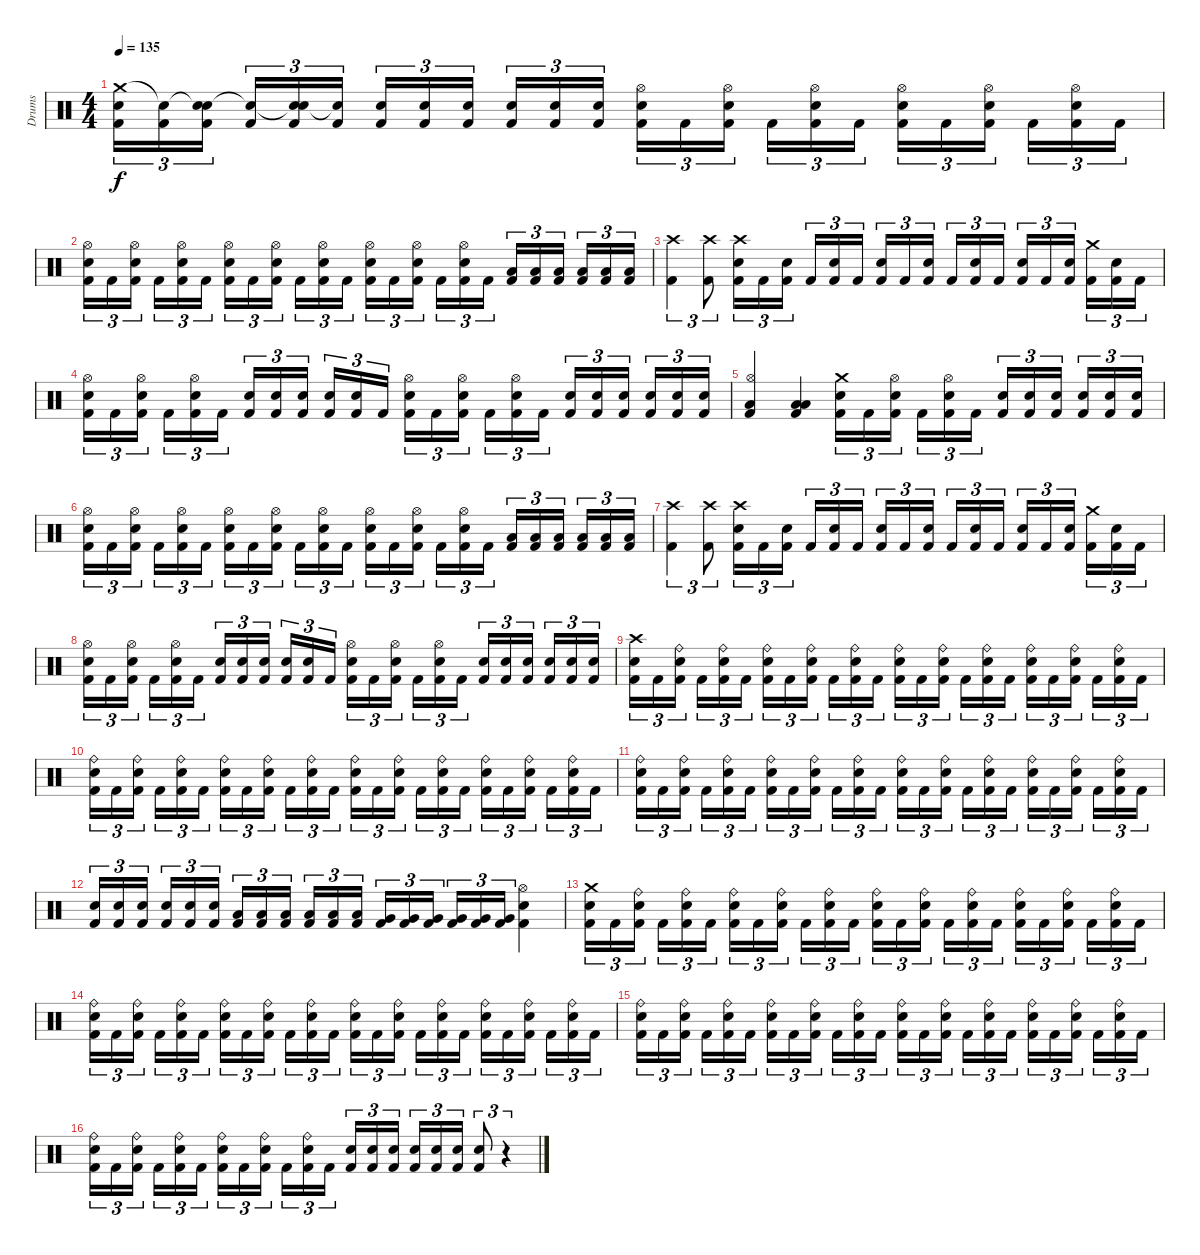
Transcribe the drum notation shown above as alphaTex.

\track ("Drums" "Drums") {instrument percussion}
\staff {score}
\articulation defaults
\ts (4 4)
\tempo 135
\clef neutral
\ks c
("Crash medium (hit)" "Electric Snare (hit)" "Kick (hit) 2").16{tu (3 2) dy f} ("Snare (hit)"{t} "Kick (hit) 2").16{tu (3 2)} ("Snare (hit)"{t} "Electric Snare (hit)" "Kick (hit) 2").16{tu (3 2)} ("Snare (hit)"{t} "Kick (hit) 2").16{tu (3 2)} ("Snare (hit)"{t} "Electric Snare (hit)" "Kick (hit) 2").16{tu (3 2)} ("Snare (hit)"{t} "Kick (hit) 2").16{tu (3 2)} ("Electric Snare (hit)" "Kick (hit) 2").16{tu (3 2)} ("Electric Snare (hit)" "Kick (hit) 2").16{tu (3 2)} ("Electric Snare (hit)" "Kick (hit) 2").16{tu (3 2)} ("Electric Snare (hit)" "Kick (hit) 2").16{tu (3 2)} ("Electric Snare (hit)" "Kick (hit) 2").16{tu (3 2)} ("Electric Snare (hit)" "Kick (hit) 2").16{tu (3 2)} ("Hi-Hat (open)" "Electric Snare (hit)" "Kick (hit) 2").16{tu (3 2)} "Kick (hit) 2".16{tu (3 2)} ("Hi-Hat (open)" "Electric Snare (hit)" "Kick (hit) 2").16{tu (3 2)} "Kick (hit) 2".16{tu (3 2)} ("Hi-Hat (open)" "Electric Snare (hit)" "Kick (hit) 2").16{tu (3 2)} "Kick (hit) 2".16{tu (3 2)} ("Hi-Hat (open)" "Electric Snare (hit)" "Kick (hit) 2").16{tu (3 2)} "Kick (hit) 2".16{tu (3 2)} ("Hi-Hat (open)" "Electric Snare (hit)" "Kick (hit) 2").16{tu (3 2)} "Kick (hit) 2".16{tu (3 2)} ("Hi-Hat (open)" "Electric Snare (hit)" "Kick (hit) 2").16{tu (3 2)} "Kick (hit) 2".16{tu (3 2)} |
("Hi-Hat (open)" "Electric Snare (hit)" "Kick (hit) 2").16{tu (3 2)} "Kick (hit) 2".16{tu (3 2)} ("Hi-Hat (open)" "Electric Snare (hit)" "Kick (hit) 2").16{tu (3 2)} "Kick (hit) 2".16{tu (3 2)} ("Hi-Hat (open)" "Electric Snare (hit)" "Kick (hit) 2").16{tu (3 2)} "Kick (hit) 2".16{tu (3 2)} ("Hi-Hat (open)" "Electric Snare (hit)" "Kick (hit) 2").16{tu (3 2)} "Kick (hit) 2".16{tu (3 2)} ("Hi-Hat (open)" "Electric Snare (hit)" "Kick (hit) 2").16{tu (3 2)} "Kick (hit) 2".16{tu (3 2)} ("Hi-Hat (open)" "Electric Snare (hit)" "Kick (hit) 2").16{tu (3 2)} "Kick (hit) 2".16{tu (3 2)} ("Hi-Hat (open)" "Electric Snare (hit)" "Kick (hit) 2").16{tu (3 2)} "Kick (hit) 2".16{tu (3 2)} ("Hi-Hat (open)" "Electric Snare (hit)" "Kick (hit) 2").16{tu (3 2)} "Kick (hit) 2".16{tu (3 2)} ("Hi-Hat (open)" "Electric Snare (hit)" "Kick (hit) 2").16{tu (3 2)} "Kick (hit) 2".16{tu (3 2)} ("Low Floor Tom (hit)" "Kick (hit) 2").16{tu (3 2)} ("Low Floor Tom (hit)" "Kick (hit) 2").16{tu (3 2)} ("Low Floor Tom (hit)" "Kick (hit) 2").16{tu (3 2)} ("Low Floor Tom (hit)" "Kick (hit) 2").16{tu (3 2)} ("Low Floor Tom (hit)" "Kick (hit) 2").16{tu (3 2)} ("Low Floor Tom (hit)" "Kick (hit) 2").16{tu (3 2)} |
("Crash high (hit)" "Kick (hit) 2").4{tu (3 2)} ("Crash high (hit)" "Kick (hit) 2").8{tu (3 2)} ("Crash high (hit)" "Electric Snare (hit)" "Kick (hit) 2").16{tu (3 2)} "Kick (hit) 2".16{tu (3 2)} ("Electric Snare (hit)" "Kick (hit) 2").16{tu (3 2)} "Kick (hit) 2".16{tu (3 2)} ("Electric Snare (hit)" "Kick (hit) 2").16{tu (3 2)} "Kick (hit) 2".16{tu (3 2)} ("Electric Snare (hit)" "Kick (hit) 2").16{tu (3 2)} "Kick (hit) 2".16{tu (3 2)} ("Electric Snare (hit)" "Kick (hit) 2").16{tu (3 2)} "Kick (hit) 2".16{tu (3 2)} ("Electric Snare (hit)" "Kick (hit) 2").16{tu (3 2)} "Kick (hit) 2".16{tu (3 2)} ("Electric Snare (hit)" "Kick (hit) 2").16{tu (3 2)} "Kick (hit) 2".16{tu (3 2)} ("Electric Snare (hit)" "Kick (hit) 2").16{tu (3 2)} ("Crash medium (hit)" "Kick (hit) 2").16{tu (3 2)} ("Electric Snare (hit)" "Kick (hit) 2").16{tu (3 2)} "Kick (hit) 2".16{tu (3 2)} |
("Hi-Hat (open)" "Electric Snare (hit)" "Kick (hit) 2").16{tu (3 2)} "Kick (hit) 2".16{tu (3 2)} ("Hi-Hat (open)" "Electric Snare (hit)" "Kick (hit) 2").16{tu (3 2)} "Kick (hit) 2".16{tu (3 2)} ("Hi-Hat (open)" "Electric Snare (hit)" "Kick (hit) 2").16{tu (3 2)} "Kick (hit) 2".16{tu (3 2)} ("Electric Snare (hit)" "Kick (hit) 2").16{tu (3 2)} ("Electric Snare (hit)" "Kick (hit) 2").16{tu (3 2)} ("Electric Snare (hit)" "Kick (hit) 2").16{tu (3 2)} ("Electric Snare (hit)" "Kick (hit) 2").16{tu (3 2)} ("Electric Snare (hit)" "Kick (hit) 2").16{tu (3 2)} "Kick (hit) 2".16{tu (3 2)} ("Hi-Hat (open)" "Electric Snare (hit)" "Kick (hit) 2").16{tu (3 2)} "Kick (hit) 2".16{tu (3 2)} ("Hi-Hat (open)" "Electric Snare (hit)" "Kick (hit) 2").16{tu (3 2)} "Kick (hit) 2".16{tu (3 2)} ("Hi-Hat (open)" "Electric Snare (hit)" "Kick (hit) 2").16{tu (3 2)} "Kick (hit) 2".16{tu (3 2)} ("Electric Snare (hit)" "Kick (hit) 2").16{tu (3 2)} ("Electric Snare (hit)" "Kick (hit) 2").16{tu (3 2)} ("Electric Snare (hit)" "Kick (hit) 2").16{tu (3 2)} ("Electric Snare (hit)" "Kick (hit) 2").16{tu (3 2)} ("Electric Snare (hit)" "Kick (hit) 2").16{tu (3 2)} ("Electric Snare (hit)" "Kick (hit) 2").16{tu (3 2)} |
("Hi-Hat (open)" "Low Floor Tom (hit)" "Kick (hit) 2").4 ("Low Floor Tom (hit)" "Low Floor Tom (hit)" "Kick (hit) 2").4 ("Crash medium (hit)" "Electric Snare (hit)" "Kick (hit) 2").16{tu (3 2)} "Kick (hit) 2".16{tu (3 2)} ("Hi-Hat (open)" "Electric Snare (hit)" "Kick (hit) 2").16{tu (3 2)} "Kick (hit) 2".16{tu (3 2)} ("Hi-Hat (open)" "Electric Snare (hit)" "Kick (hit) 2").16{tu (3 2)} "Kick (hit) 2".16{tu (3 2)} ("Electric Snare (hit)" "Kick (hit) 2").16{tu (3 2)} ("Electric Snare (hit)" "Kick (hit) 2").16{tu (3 2)} ("Electric Snare (hit)" "Kick (hit) 2").16{tu (3 2)} ("Electric Snare (hit)" "Kick (hit) 2").16{tu (3 2)} ("Electric Snare (hit)" "Kick (hit) 2").16{tu (3 2)} ("Electric Snare (hit)" "Kick (hit) 2").16{tu (3 2)} |
("Hi-Hat (open)" "Electric Snare (hit)" "Kick (hit) 2").16{tu (3 2)} "Kick (hit) 2".16{tu (3 2)} ("Hi-Hat (open)" "Electric Snare (hit)" "Kick (hit) 2").16{tu (3 2)} "Kick (hit) 2".16{tu (3 2)} ("Hi-Hat (open)" "Electric Snare (hit)" "Kick (hit) 2").16{tu (3 2)} "Kick (hit) 2".16{tu (3 2)} ("Hi-Hat (open)" "Electric Snare (hit)" "Kick (hit) 2").16{tu (3 2)} "Kick (hit) 2".16{tu (3 2)} ("Hi-Hat (open)" "Electric Snare (hit)" "Kick (hit) 2").16{tu (3 2)} "Kick (hit) 2".16{tu (3 2)} ("Hi-Hat (open)" "Electric Snare (hit)" "Kick (hit) 2").16{tu (3 2)} "Kick (hit) 2".16{tu (3 2)} ("Hi-Hat (open)" "Electric Snare (hit)" "Kick (hit) 2").16{tu (3 2)} "Kick (hit) 2".16{tu (3 2)} ("Hi-Hat (open)" "Electric Snare (hit)" "Kick (hit) 2").16{tu (3 2)} "Kick (hit) 2".16{tu (3 2)} ("Hi-Hat (open)" "Electric Snare (hit)" "Kick (hit) 2").16{tu (3 2)} "Kick (hit) 2".16{tu (3 2)} ("Low Floor Tom (hit)" "Kick (hit) 2").16{tu (3 2)} ("Low Floor Tom (hit)" "Kick (hit) 2").16{tu (3 2)} ("Low Floor Tom (hit)" "Kick (hit) 2").16{tu (3 2)} ("Low Floor Tom (hit)" "Kick (hit) 2").16{tu (3 2)} ("Low Floor Tom (hit)" "Kick (hit) 2").16{tu (3 2)} ("Low Floor Tom (hit)" "Kick (hit) 2").16{tu (3 2)} |
("Crash high (hit)" "Kick (hit) 2").4{tu (3 2)} ("Crash high (hit)" "Kick (hit) 2").8{tu (3 2)} ("Crash high (hit)" "Electric Snare (hit)" "Kick (hit) 2").16{tu (3 2)} "Kick (hit) 2".16{tu (3 2)} ("Electric Snare (hit)" "Kick (hit) 2").16{tu (3 2)} "Kick (hit) 2".16{tu (3 2)} ("Electric Snare (hit)" "Kick (hit) 2").16{tu (3 2)} "Kick (hit) 2".16{tu (3 2)} ("Electric Snare (hit)" "Kick (hit) 2").16{tu (3 2)} "Kick (hit) 2".16{tu (3 2)} ("Electric Snare (hit)" "Kick (hit) 2").16{tu (3 2)} "Kick (hit) 2".16{tu (3 2)} ("Electric Snare (hit)" "Kick (hit) 2").16{tu (3 2)} "Kick (hit) 2".16{tu (3 2)} ("Electric Snare (hit)" "Kick (hit) 2").16{tu (3 2)} "Kick (hit) 2".16{tu (3 2)} ("Electric Snare (hit)" "Kick (hit) 2").16{tu (3 2)} ("Crash medium (hit)" "Kick (hit) 2").16{tu (3 2)} ("Electric Snare (hit)" "Kick (hit) 2").16{tu (3 2)} "Kick (hit) 2".16{tu (3 2)} |
("Hi-Hat (open)" "Electric Snare (hit)" "Kick (hit) 2").16{tu (3 2)} "Kick (hit) 2".16{tu (3 2)} ("Hi-Hat (open)" "Electric Snare (hit)" "Kick (hit) 2").16{tu (3 2)} "Kick (hit) 2".16{tu (3 2)} ("Hi-Hat (open)" "Electric Snare (hit)" "Kick (hit) 2").16{tu (3 2)} "Kick (hit) 2".16{tu (3 2)} ("Electric Snare (hit)" "Kick (hit) 2").16{tu (3 2)} ("Electric Snare (hit)" "Kick (hit) 2").16{tu (3 2)} ("Electric Snare (hit)" "Kick (hit) 2").16{tu (3 2)} ("Electric Snare (hit)" "Kick (hit) 2").16{tu (3 2)} ("Electric Snare (hit)" "Kick (hit) 2").16{tu (3 2)} "Kick (hit) 2".16{tu (3 2)} ("Hi-Hat (open)" "Electric Snare (hit)" "Kick (hit) 2").16{tu (3 2)} "Kick (hit) 2".16{tu (3 2)} ("Hi-Hat (open)" "Electric Snare (hit)" "Kick (hit) 2").16{tu (3 2)} "Kick (hit) 2".16{tu (3 2)} ("Hi-Hat (open)" "Electric Snare (hit)" "Kick (hit) 2").16{tu (3 2)} "Kick (hit) 2".16{tu (3 2)} ("Electric Snare (hit)" "Kick (hit) 2").16{tu (3 2)} ("Electric Snare (hit)" "Kick (hit) 2").16{tu (3 2)} ("Electric Snare (hit)" "Kick (hit) 2").16{tu (3 2)} ("Electric Snare (hit)" "Kick (hit) 2").16{tu (3 2)} ("Electric Snare (hit)" "Kick (hit) 2").16{tu (3 2)} ("Electric Snare (hit)" "Kick (hit) 2").16{tu (3 2)} |
("Crash high (hit)" "Electric Snare (hit)" "Kick (hit) 2").16{tu (3 2)} "Kick (hit) 2".16{tu (3 2)} ("Ride (bell)" "Electric Snare (hit)" "Kick (hit) 2").16{tu (3 2)} "Kick (hit) 2".16{tu (3 2)} ("Ride (bell)" "Electric Snare (hit)" "Kick (hit) 2").16{tu (3 2)} "Kick (hit) 2".16{tu (3 2)} ("Ride (bell)" "Electric Snare (hit)" "Kick (hit) 2").16{tu (3 2)} "Kick (hit) 2".16{tu (3 2)} ("Ride (bell)" "Electric Snare (hit)" "Kick (hit) 2").16{tu (3 2)} "Kick (hit) 2".16{tu (3 2)} ("Ride (bell)" "Electric Snare (hit)" "Kick (hit) 2").16{tu (3 2)} "Kick (hit) 2".16{tu (3 2)} ("Ride (bell)" "Electric Snare (hit)" "Kick (hit) 2").16{tu (3 2)} "Kick (hit) 2".16{tu (3 2)} ("Ride (bell)" "Electric Snare (hit)" "Kick (hit) 2").16{tu (3 2)} "Kick (hit) 2".16{tu (3 2)} ("Ride (bell)" "Electric Snare (hit)" "Kick (hit) 2").16{tu (3 2)} "Kick (hit) 2".16{tu (3 2)} ("Ride (bell)" "Electric Snare (hit)" "Kick (hit) 2").16{tu (3 2)} "Kick (hit) 2".16{tu (3 2)} ("Ride (bell)" "Electric Snare (hit)" "Kick (hit) 2").16{tu (3 2)} "Kick (hit) 2".16{tu (3 2)} ("Ride (bell)" "Electric Snare (hit)" "Kick (hit) 2").16{tu (3 2)} "Kick (hit) 2".16{tu (3 2)} |
("Ride (bell)" "Electric Snare (hit)" "Kick (hit) 2").16{tu (3 2)} "Kick (hit) 2".16{tu (3 2)} ("Ride (bell)" "Electric Snare (hit)" "Kick (hit) 2").16{tu (3 2)} "Kick (hit) 2".16{tu (3 2)} ("Ride (bell)" "Electric Snare (hit)" "Kick (hit) 2").16{tu (3 2)} "Kick (hit) 2".16{tu (3 2)} ("Ride (bell)" "Electric Snare (hit)" "Kick (hit) 2").16{tu (3 2)} "Kick (hit) 2".16{tu (3 2)} ("Ride (bell)" "Electric Snare (hit)" "Kick (hit) 2").16{tu (3 2)} "Kick (hit) 2".16{tu (3 2)} ("Ride (bell)" "Electric Snare (hit)" "Kick (hit) 2").16{tu (3 2)} "Kick (hit) 2".16{tu (3 2)} ("Ride (bell)" "Electric Snare (hit)" "Kick (hit) 2").16{tu (3 2)} "Kick (hit) 2".16{tu (3 2)} ("Ride (bell)" "Electric Snare (hit)" "Kick (hit) 2").16{tu (3 2)} "Kick (hit) 2".16{tu (3 2)} ("Ride (bell)" "Electric Snare (hit)" "Kick (hit) 2").16{tu (3 2)} "Kick (hit) 2".16{tu (3 2)} ("Ride (bell)" "Electric Snare (hit)" "Kick (hit) 2").16{tu (3 2)} "Kick (hit) 2".16{tu (3 2)} ("Ride (bell)" "Electric Snare (hit)" "Kick (hit) 2").16{tu (3 2)} "Kick (hit) 2".16{tu (3 2)} ("Ride (bell)" "Electric Snare (hit)" "Kick (hit) 2").16{tu (3 2)} "Kick (hit) 2".16{tu (3 2)} |
("Ride (bell)" "Electric Snare (hit)" "Kick (hit) 2").16{tu (3 2)} "Kick (hit) 2".16{tu (3 2)} ("Ride (bell)" "Electric Snare (hit)" "Kick (hit) 2").16{tu (3 2)} "Kick (hit) 2".16{tu (3 2)} ("Ride (bell)" "Electric Snare (hit)" "Kick (hit) 2").16{tu (3 2)} "Kick (hit) 2".16{tu (3 2)} ("Ride (bell)" "Electric Snare (hit)" "Kick (hit) 2").16{tu (3 2)} "Kick (hit) 2".16{tu (3 2)} ("Ride (bell)" "Electric Snare (hit)" "Kick (hit) 2").16{tu (3 2)} "Kick (hit) 2".16{tu (3 2)} ("Ride (bell)" "Electric Snare (hit)" "Kick (hit) 2").16{tu (3 2)} "Kick (hit) 2".16{tu (3 2)} ("Ride (bell)" "Electric Snare (hit)" "Kick (hit) 2").16{tu (3 2)} "Kick (hit) 2".16{tu (3 2)} ("Ride (bell)" "Electric Snare (hit)" "Kick (hit) 2").16{tu (3 2)} "Kick (hit) 2".16{tu (3 2)} ("Ride (bell)" "Electric Snare (hit)" "Kick (hit) 2").16{tu (3 2)} "Kick (hit) 2".16{tu (3 2)} ("Ride (bell)" "Electric Snare (hit)" "Kick (hit) 2").16{tu (3 2)} "Kick (hit) 2".16{tu (3 2)} ("Ride (bell)" "Electric Snare (hit)" "Kick (hit) 2").16{tu (3 2)} "Kick (hit) 2".16{tu (3 2)} ("Ride (bell)" "Electric Snare (hit)" "Kick (hit) 2").16{tu (3 2)} "Kick (hit) 2".16{tu (3 2)} |
("Electric Snare (hit)" "Kick (hit) 2").16{tu (3 2)} ("Electric Snare (hit)" "Kick (hit) 2").16{tu (3 2)} ("Electric Snare (hit)" "Kick (hit) 2").16{tu (3 2)} ("Electric Snare (hit)" "Kick (hit) 2").16{tu (3 2)} ("Electric Snare (hit)" "Kick (hit) 2").16{tu (3 2)} ("Electric Snare (hit)" "Kick (hit) 2").16{tu (3 2)} ("Low Floor Tom (hit)" "Kick (hit) 2").16{tu (3 2)} ("Low Floor Tom (hit)" "Kick (hit) 2").16{tu (3 2)} ("Low Floor Tom (hit)" "Kick (hit) 2").16{tu (3 2)} ("Low Floor Tom (hit)" "Kick (hit) 2").16{tu (3 2)} ("Low Floor Tom (hit)" "Kick (hit) 2").16{tu (3 2)} ("Low Floor Tom (hit)" "Kick (hit) 2").16{tu (3 2)} ("Very Low Tom (hit)" "Kick (hit) 2").16{tu (3 2)} ("Very Low Tom (hit)" "Kick (hit) 2").16{tu (3 2)} ("Very Low Tom (hit)" "Kick (hit) 2").16{tu (3 2)} ("Very Low Tom (hit)" "Kick (hit) 2").16{tu (3 2)} ("Very Low Tom (hit)" "Kick (hit) 2").16{tu (3 2)} ("Very Low Tom (hit)" "Kick (hit) 2").16{tu (3 2)} ("Hi-Hat (open)" "Electric Snare (hit)" "Kick (hit) 2").4 |
("Crash medium (hit)" "Electric Snare (hit)" "Kick (hit) 2").16{tu (3 2)} "Kick (hit) 2".16{tu (3 2)} ("Ride (bell)" "Electric Snare (hit)" "Kick (hit) 2").16{tu (3 2)} "Kick (hit) 2".16{tu (3 2)} ("Ride (bell)" "Electric Snare (hit)" "Kick (hit) 2").16{tu (3 2)} "Kick (hit) 2".16{tu (3 2)} ("Ride (bell)" "Electric Snare (hit)" "Kick (hit) 2").16{tu (3 2)} "Kick (hit) 2".16{tu (3 2)} ("Ride (bell)" "Electric Snare (hit)" "Kick (hit) 2").16{tu (3 2)} "Kick (hit) 2".16{tu (3 2)} ("Ride (bell)" "Electric Snare (hit)" "Kick (hit) 2").16{tu (3 2)} "Kick (hit) 2".16{tu (3 2)} ("Ride (bell)" "Electric Snare (hit)" "Kick (hit) 2").16{tu (3 2)} "Kick (hit) 2".16{tu (3 2)} ("Ride (bell)" "Electric Snare (hit)" "Kick (hit) 2").16{tu (3 2)} "Kick (hit) 2".16{tu (3 2)} ("Ride (bell)" "Electric Snare (hit)" "Kick (hit) 2").16{tu (3 2)} "Kick (hit) 2".16{tu (3 2)} ("Ride (bell)" "Electric Snare (hit)" "Kick (hit) 2").16{tu (3 2)} "Kick (hit) 2".16{tu (3 2)} ("Ride (bell)" "Electric Snare (hit)" "Kick (hit) 2").16{tu (3 2)} "Kick (hit) 2".16{tu (3 2)} ("Ride (bell)" "Electric Snare (hit)" "Kick (hit) 2").16{tu (3 2)} "Kick (hit) 2".16{tu (3 2)} |
("Ride (bell)" "Electric Snare (hit)" "Kick (hit) 2").16{tu (3 2)} "Kick (hit) 2".16{tu (3 2)} ("Ride (bell)" "Electric Snare (hit)" "Kick (hit) 2").16{tu (3 2)} "Kick (hit) 2".16{tu (3 2)} ("Ride (bell)" "Electric Snare (hit)" "Kick (hit) 2").16{tu (3 2)} "Kick (hit) 2".16{tu (3 2)} ("Ride (bell)" "Electric Snare (hit)" "Kick (hit) 2").16{tu (3 2)} "Kick (hit) 2".16{tu (3 2)} ("Ride (bell)" "Electric Snare (hit)" "Kick (hit) 2").16{tu (3 2)} "Kick (hit) 2".16{tu (3 2)} ("Ride (bell)" "Electric Snare (hit)" "Kick (hit) 2").16{tu (3 2)} "Kick (hit) 2".16{tu (3 2)} ("Ride (bell)" "Electric Snare (hit)" "Kick (hit) 2").16{tu (3 2)} "Kick (hit) 2".16{tu (3 2)} ("Ride (bell)" "Electric Snare (hit)" "Kick (hit) 2").16{tu (3 2)} "Kick (hit) 2".16{tu (3 2)} ("Ride (bell)" "Electric Snare (hit)" "Kick (hit) 2").16{tu (3 2)} "Kick (hit) 2".16{tu (3 2)} ("Ride (bell)" "Electric Snare (hit)" "Kick (hit) 2").16{tu (3 2)} "Kick (hit) 2".16{tu (3 2)} ("Ride (bell)" "Electric Snare (hit)" "Kick (hit) 2").16{tu (3 2)} "Kick (hit) 2".16{tu (3 2)} ("Ride (bell)" "Electric Snare (hit)" "Kick (hit) 2").16{tu (3 2)} "Kick (hit) 2".16{tu (3 2)} |
("Ride (bell)" "Electric Snare (hit)" "Kick (hit) 2").16{tu (3 2)} "Kick (hit) 2".16{tu (3 2)} ("Ride (bell)" "Electric Snare (hit)" "Kick (hit) 2").16{tu (3 2)} "Kick (hit) 2".16{tu (3 2)} ("Ride (bell)" "Electric Snare (hit)" "Kick (hit) 2").16{tu (3 2)} "Kick (hit) 2".16{tu (3 2)} ("Ride (bell)" "Electric Snare (hit)" "Kick (hit) 2").16{tu (3 2)} "Kick (hit) 2".16{tu (3 2)} ("Ride (bell)" "Electric Snare (hit)" "Kick (hit) 2").16{tu (3 2)} "Kick (hit) 2".16{tu (3 2)} ("Ride (bell)" "Electric Snare (hit)" "Kick (hit) 2").16{tu (3 2)} "Kick (hit) 2".16{tu (3 2)} ("Ride (bell)" "Electric Snare (hit)" "Kick (hit) 2").16{tu (3 2)} "Kick (hit) 2".16{tu (3 2)} ("Ride (bell)" "Electric Snare (hit)" "Kick (hit) 2").16{tu (3 2)} "Kick (hit) 2".16{tu (3 2)} ("Ride (bell)" "Electric Snare (hit)" "Kick (hit) 2").16{tu (3 2)} "Kick (hit) 2".16{tu (3 2)} ("Ride (bell)" "Electric Snare (hit)" "Kick (hit) 2").16{tu (3 2)} "Kick (hit) 2".16{tu (3 2)} ("Ride (bell)" "Electric Snare (hit)" "Kick (hit) 2").16{tu (3 2)} "Kick (hit) 2".16{tu (3 2)} ("Ride (bell)" "Electric Snare (hit)" "Kick (hit) 2").16{tu (3 2)} "Kick (hit) 2".16{tu (3 2)} |
("Ride (bell)" "Electric Snare (hit)" "Kick (hit) 2").16{tu (3 2)} "Kick (hit) 2".16{tu (3 2)} ("Ride (bell)" "Electric Snare (hit)" "Kick (hit) 2").16{tu (3 2)} "Kick (hit) 2".16{tu (3 2)} ("Ride (bell)" "Electric Snare (hit)" "Kick (hit) 2").16{tu (3 2)} "Kick (hit) 2".16{tu (3 2)} ("Ride (bell)" "Electric Snare (hit)" "Kick (hit) 2").16{tu (3 2)} "Kick (hit) 2".16{tu (3 2)} ("Ride (bell)" "Electric Snare (hit)" "Kick (hit) 2").16{tu (3 2)} "Kick (hit) 2".16{tu (3 2)} ("Ride (bell)" "Electric Snare (hit)" "Kick (hit) 2").16{tu (3 2)} "Kick (hit) 2".16{tu (3 2)} ("Electric Snare (hit)" "Kick (hit) 2").16{tu (3 2)} ("Electric Snare (hit)" "Kick (hit) 2").16{tu (3 2)} ("Electric Snare (hit)" "Kick (hit) 2").16{tu (3 2)} ("Electric Snare (hit)" "Kick (hit) 2").16{tu (3 2)} ("Electric Snare (hit)" "Kick (hit) 2").16{tu (3 2)} ("Electric Snare (hit)" "Kick (hit) 2").16{tu (3 2)} ("Electric Snare (hit)" "Kick (hit) 2").8{tu (3 2)} r.4{tu (3 2)}
